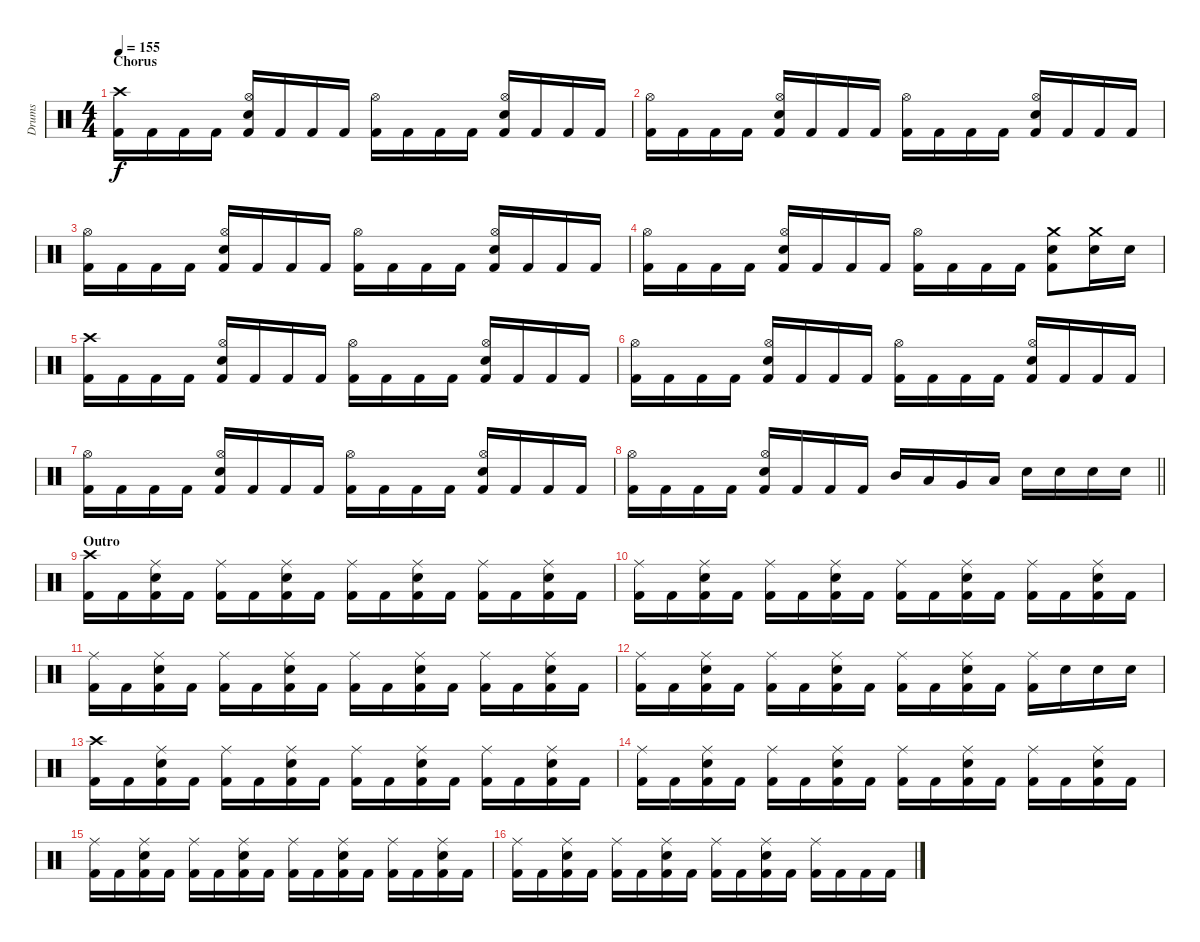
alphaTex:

\track ("Drums" "Drums") {instrument percussion}
\staff {score}
\articulation defaults
\ts (4 4)
\section ("" "Chorus")
\tempo 155
\clef neutral
\ks c
("Crash high (hit)" "Kick (hit) 2").16{dy f} "Kick (hit) 2".16 "Kick (hit) 2".16 "Kick (hit) 2".16 ("Hi-Hat (open)" "Snare (hit) 2" "Kick (hit) 2").16 "Kick (hit) 2".16 "Kick (hit) 2".16 "Kick (hit) 2".16 ("Hi-Hat (open)" "Kick (hit) 2").16 "Kick (hit) 2".16 "Kick (hit) 2".16 "Kick (hit) 2".16 ("Hi-Hat (open)" "Snare (hit) 2" "Kick (hit) 2").16 "Kick (hit) 2".16 "Kick (hit) 2".16 "Kick (hit) 2".16 |
("Hi-Hat (open)" "Kick (hit) 2").16 "Kick (hit) 2".16 "Kick (hit) 2".16 "Kick (hit) 2".16 ("Hi-Hat (open)" "Snare (hit) 2" "Kick (hit) 2").16 "Kick (hit) 2".16 "Kick (hit) 2".16 "Kick (hit) 2".16 ("Hi-Hat (open)" "Kick (hit) 2").16 "Kick (hit) 2".16 "Kick (hit) 2".16 "Kick (hit) 2".16 ("Hi-Hat (open)" "Snare (hit) 2" "Kick (hit) 2").16 "Kick (hit) 2".16 "Kick (hit) 2".16 "Kick (hit) 2".16 |
("Hi-Hat (open)" "Kick (hit) 2").16 "Kick (hit) 2".16 "Kick (hit) 2".16 "Kick (hit) 2".16 ("Hi-Hat (open)" "Snare (hit) 2" "Kick (hit) 2").16 "Kick (hit) 2".16 "Kick (hit) 2".16 "Kick (hit) 2".16 ("Hi-Hat (open)" "Kick (hit) 2").16 "Kick (hit) 2".16 "Kick (hit) 2".16 "Kick (hit) 2".16 ("Hi-Hat (open)" "Snare (hit) 2" "Kick (hit) 2").16 "Kick (hit) 2".16 "Kick (hit) 2".16 "Kick (hit) 2".16 |
("Hi-Hat (open)" "Kick (hit) 2").16 "Kick (hit) 2".16 "Kick (hit) 2".16 "Kick (hit) 2".16 ("Hi-Hat (open)" "Snare (hit) 2" "Kick (hit) 2").16 "Kick (hit) 2".16 "Kick (hit) 2".16 "Kick (hit) 2".16 ("Hi-Hat (open)" "Kick (hit) 2").16 "Kick (hit) 2".16 "Kick (hit) 2".16 "Kick (hit) 2".16 ("Crash medium (hit)" "Snare (hit) 2" "Kick (hit) 2").8 ("Crash medium (hit)" "Snare (hit) 2").16 "Snare (hit) 2".16 |
("Crash high (hit)" "Kick (hit) 2").16 "Kick (hit) 2".16 "Kick (hit) 2".16 "Kick (hit) 2".16 ("Hi-Hat (open)" "Snare (hit) 2" "Kick (hit) 2").16 "Kick (hit) 2".16 "Kick (hit) 2".16 "Kick (hit) 2".16 ("Hi-Hat (open)" "Kick (hit) 2").16 "Kick (hit) 2".16 "Kick (hit) 2".16 "Kick (hit) 2".16 ("Hi-Hat (open)" "Snare (hit) 2" "Kick (hit) 2").16 "Kick (hit) 2".16 "Kick (hit) 2".16 "Kick (hit) 2".16 |
("Hi-Hat (open)" "Kick (hit) 2").16 "Kick (hit) 2".16 "Kick (hit) 2".16 "Kick (hit) 2".16 ("Hi-Hat (open)" "Snare (hit) 2" "Kick (hit) 2").16 "Kick (hit) 2".16 "Kick (hit) 2".16 "Kick (hit) 2".16 ("Hi-Hat (open)" "Kick (hit) 2").16 "Kick (hit) 2".16 "Kick (hit) 2".16 "Kick (hit) 2".16 ("Hi-Hat (open)" "Snare (hit) 2" "Kick (hit) 2").16 "Kick (hit) 2".16 "Kick (hit) 2".16 "Kick (hit) 2".16 |
("Hi-Hat (open)" "Kick (hit) 2").16 "Kick (hit) 2".16 "Kick (hit) 2".16 "Kick (hit) 2".16 ("Hi-Hat (open)" "Snare (hit) 2" "Kick (hit) 2").16 "Kick (hit) 2".16 "Kick (hit) 2".16 "Kick (hit) 2".16 ("Hi-Hat (open)" "Kick (hit) 2").16 "Kick (hit) 2".16 "Kick (hit) 2".16 "Kick (hit) 2".16 ("Hi-Hat (open)" "Snare (hit) 2" "Kick (hit) 2").16 "Kick (hit) 2".16 "Kick (hit) 2".16 "Kick (hit) 2".16 |
\barLineRight lightlight
("Hi-Hat (open)" "Kick (hit) 2").16 "Kick (hit) 2".16 "Kick (hit) 2".16 "Kick (hit) 2".16 ("Hi-Hat (open)" "Snare (hit) 2" "Kick (hit) 2").16 "Kick (hit) 2".16 "Kick (hit) 2".16 "Kick (hit) 2".16 "Mid Tom (hit)".16 "Low Tom (hit)".16 "Very Low Tom (hit)".16 "Low Floor Tom (hit)".16 "Snare (hit) 2".16 "Snare (hit) 2".16 "Snare (hit) 2".16 "Snare (hit) 2".16 |
\section ("" "Outro")
("Crash high (hit)" "Kick (hit) 2").16 "Kick (hit) 2".16 ("Ride (middle)" "Snare (hit) 2" "Kick (hit) 2").16 "Kick (hit) 2".16 ("Ride (middle)" "Kick (hit) 2").16 "Kick (hit) 2".16 ("Ride (middle)" "Snare (hit) 2" "Kick (hit) 2").16 "Kick (hit) 2".16 ("Ride (middle)" "Kick (hit) 2").16 "Kick (hit) 2".16 ("Ride (middle)" "Snare (hit) 2" "Kick (hit) 2").16 "Kick (hit) 2".16 ("Ride (middle)" "Kick (hit) 2").16 "Kick (hit) 2".16 ("Ride (middle)" "Snare (hit) 2" "Kick (hit) 2").16 "Kick (hit) 2".16 |
("Ride (middle)" "Kick (hit) 2").16 "Kick (hit) 2".16 ("Ride (middle)" "Snare (hit) 2" "Kick (hit) 2").16 "Kick (hit) 2".16 ("Ride (middle)" "Kick (hit) 2").16 "Kick (hit) 2".16 ("Ride (middle)" "Snare (hit) 2" "Kick (hit) 2").16 "Kick (hit) 2".16 ("Ride (middle)" "Kick (hit) 2").16 "Kick (hit) 2".16 ("Ride (middle)" "Snare (hit) 2" "Kick (hit) 2").16 "Kick (hit) 2".16 ("Ride (middle)" "Kick (hit) 2").16 "Kick (hit) 2".16 ("Ride (middle)" "Snare (hit) 2" "Kick (hit) 2").16 "Kick (hit) 2".16 |
("Ride (middle)" "Kick (hit) 2").16 "Kick (hit) 2".16 ("Ride (middle)" "Snare (hit) 2" "Kick (hit) 2").16 "Kick (hit) 2".16 ("Ride (middle)" "Kick (hit) 2").16 "Kick (hit) 2".16 ("Ride (middle)" "Snare (hit) 2" "Kick (hit) 2").16 "Kick (hit) 2".16 ("Ride (middle)" "Kick (hit) 2").16 "Kick (hit) 2".16 ("Ride (middle)" "Snare (hit) 2" "Kick (hit) 2").16 "Kick (hit) 2".16 ("Ride (middle)" "Kick (hit) 2").16 "Kick (hit) 2".16 ("Ride (middle)" "Snare (hit) 2" "Kick (hit) 2").16 "Kick (hit) 2".16 |
("Ride (middle)" "Kick (hit) 2").16 "Kick (hit) 2".16 ("Ride (middle)" "Snare (hit) 2" "Kick (hit) 2").16 "Kick (hit) 2".16 ("Ride (middle)" "Kick (hit) 2").16 "Kick (hit) 2".16 ("Ride (middle)" "Snare (hit) 2" "Kick (hit) 2").16 "Kick (hit) 2".16 ("Ride (middle)" "Kick (hit) 2").16 "Kick (hit) 2".16 ("Ride (middle)" "Snare (hit) 2" "Kick (hit) 2").16 "Kick (hit) 2".16 ("Ride (middle)" "Kick (hit) 2").16 "Snare (hit) 2".16 "Snare (hit) 2".16 "Snare (hit) 2".16 |
("Crash high (hit)" "Kick (hit) 2").16 "Kick (hit) 2".16 ("Ride (middle)" "Snare (hit) 2" "Kick (hit) 2").16 "Kick (hit) 2".16 ("Ride (middle)" "Kick (hit) 2").16 "Kick (hit) 2".16 ("Ride (middle)" "Snare (hit) 2" "Kick (hit) 2").16 "Kick (hit) 2".16 ("Ride (middle)" "Kick (hit) 2").16 "Kick (hit) 2".16 ("Ride (middle)" "Snare (hit) 2" "Kick (hit) 2").16 "Kick (hit) 2".16 ("Ride (middle)" "Kick (hit) 2").16 "Kick (hit) 2".16 ("Ride (middle)" "Snare (hit) 2" "Kick (hit) 2").16 "Kick (hit) 2".16 |
("Ride (middle)" "Kick (hit) 2").16 "Kick (hit) 2".16 ("Ride (middle)" "Snare (hit) 2" "Kick (hit) 2").16 "Kick (hit) 2".16 ("Ride (middle)" "Kick (hit) 2").16 "Kick (hit) 2".16 ("Ride (middle)" "Snare (hit) 2" "Kick (hit) 2").16 "Kick (hit) 2".16 ("Ride (middle)" "Kick (hit) 2").16 "Kick (hit) 2".16 ("Ride (middle)" "Snare (hit) 2" "Kick (hit) 2").16 "Kick (hit) 2".16 ("Ride (middle)" "Kick (hit) 2").16 "Kick (hit) 2".16 ("Ride (middle)" "Snare (hit) 2" "Kick (hit) 2").16 "Kick (hit) 2".16 |
("Ride (middle)" "Kick (hit) 2").16 "Kick (hit) 2".16 ("Ride (middle)" "Snare (hit) 2" "Kick (hit) 2").16 "Kick (hit) 2".16 ("Ride (middle)" "Kick (hit) 2").16 "Kick (hit) 2".16 ("Ride (middle)" "Snare (hit) 2" "Kick (hit) 2").16 "Kick (hit) 2".16 ("Ride (middle)" "Kick (hit) 2").16 "Kick (hit) 2".16 ("Ride (middle)" "Snare (hit) 2" "Kick (hit) 2").16 "Kick (hit) 2".16 ("Ride (middle)" "Kick (hit) 2").16 "Kick (hit) 2".16 ("Ride (middle)" "Snare (hit) 2" "Kick (hit) 2").16 "Kick (hit) 2".16 |
("Ride (middle)" "Kick (hit) 2").16 "Kick (hit) 2".16 ("Ride (middle)" "Snare (hit) 2" "Kick (hit) 2").16 "Kick (hit) 2".16 ("Ride (middle)" "Kick (hit) 2").16 "Kick (hit) 2".16 ("Ride (middle)" "Snare (hit) 2" "Kick (hit) 2").16 "Kick (hit) 2".16 ("Ride (middle)" "Kick (hit) 2").16 "Kick (hit) 2".16 ("Ride (middle)" "Snare (hit) 2" "Kick (hit) 2").16 "Kick (hit) 2".16 ("Ride (middle)" "Kick (hit) 2").16 "Kick (hit) 2".16 "Kick (hit) 2".16 "Kick (hit) 2".16
